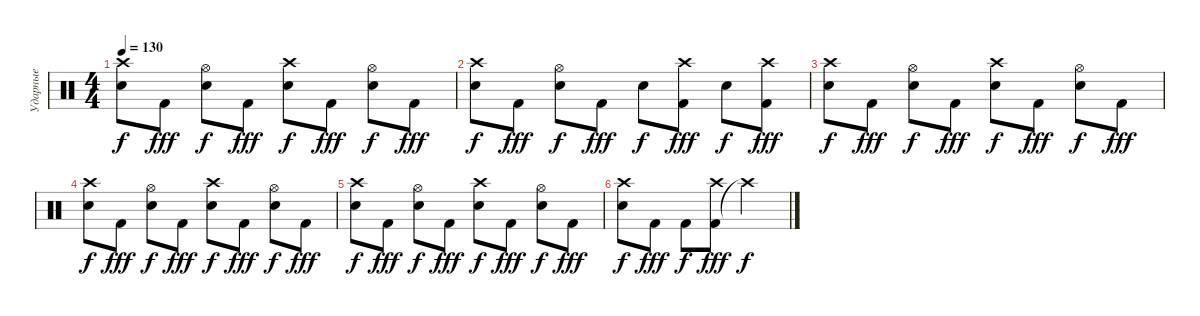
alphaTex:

\track ("Ударные" "Ударные") {instrument percussion}
\staff {score}
\articulation defaults
\ts (4 4)
\tempo 130
\clef neutral
\ks c
("Snare (hit) 2" "Crash high (hit)").8{dy f} "Kick (hit) 2".8{dy fff} ("Snare (hit) 2" "Hi-Hat (open)").8{dy f} "Kick (hit) 2".8{dy fff} ("Snare (hit) 2" "Crash high (hit)").8{dy f} "Kick (hit) 2".8{dy fff} ("Snare (hit) 2" "Hi-Hat (open)").8{dy f} "Kick (hit) 2".8{dy fff} |
("Snare (hit) 2" "Crash high (hit)").8{dy f} "Kick (hit) 2".8{dy fff} ("Snare (hit) 2" "Hi-Hat (open)").8{dy f} "Kick (hit) 2".8{dy fff} "Snare (hit) 2".8{dy f} ("Kick (hit) 2" "Crash high (hit)").8{dy fff} "Snare (hit) 2".8{dy f} ("Kick (hit) 2" "Crash high (hit)").8{dy fff} |
("Snare (hit) 2" "Crash high (hit)").8{dy f} "Kick (hit) 2".8{dy fff} ("Snare (hit) 2" "Hi-Hat (open)").8{dy f} "Kick (hit) 2".8{dy fff} ("Snare (hit) 2" "Crash high (hit)").8{dy f} "Kick (hit) 2".8{dy fff} ("Snare (hit) 2" "Hi-Hat (open)").8{dy f} "Kick (hit) 2".8{dy fff} |
("Snare (hit) 2" "Crash high (hit)").8{dy f} "Kick (hit) 2".8{dy fff} ("Snare (hit) 2" "Hi-Hat (open)").8{dy f} "Kick (hit) 2".8{dy fff} ("Snare (hit) 2" "Crash high (hit)").8{dy f} "Kick (hit) 2".8{dy fff} ("Snare (hit) 2" "Hi-Hat (open)").8{dy f} "Kick (hit) 2".8{dy fff} |
("Snare (hit) 2" "Crash high (hit)").8{dy f} "Kick (hit) 2".8{dy fff} ("Snare (hit) 2" "Hi-Hat (open)").8{dy f} "Kick (hit) 2".8{dy fff} ("Snare (hit) 2" "Crash high (hit)").8{dy f} "Kick (hit) 2".8{dy fff} ("Snare (hit) 2" "Hi-Hat (open)").8{dy f} "Kick (hit) 2".8{dy fff} |
("Snare (hit) 2" "Crash high (hit)").8{dy f} "Kick (hit) 2".8{dy fff} "Kick (hit) 2".8{dy f} ("Kick (hit) 2" "Crash high (hit)").8{dy fff} "Crash high (hit)"{t}.2{dy f}
